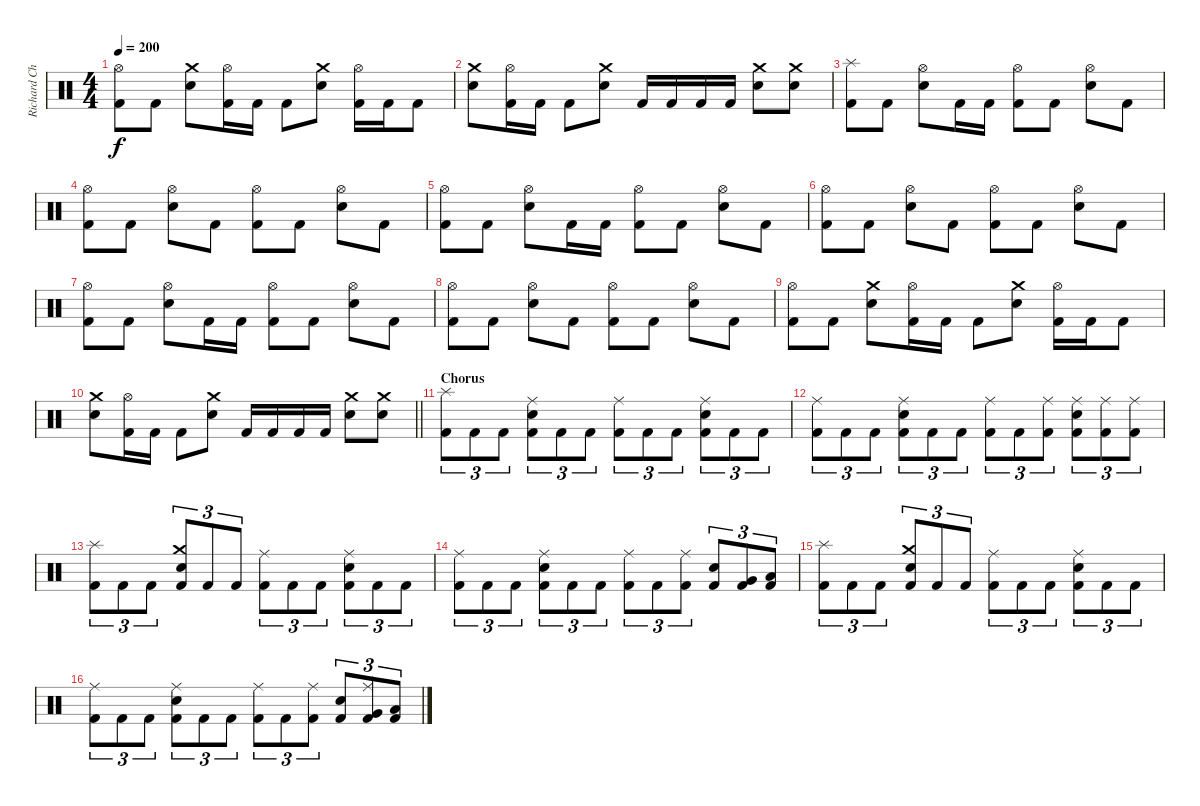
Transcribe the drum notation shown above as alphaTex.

\track ("Richard Christy" "Richard Ch") {instrument percussion}
\staff {score}
\articulation defaults
\ts (4 4)
\tempo 200
\clef neutral
\ks c
("Hi-Hat (open)" "Kick (hit) 2").8{dy f} "Kick (hit) 2".8 ("Crash medium (hit)" "Electric Snare (hit)").8 ("Hi-Hat (open)" "Kick (hit) 2").16 "Kick (hit) 2".16 "Kick (hit) 2".8 ("Crash medium (hit)" "Electric Snare (hit)").8 ("Hi-Hat (open)" "Kick (hit) 2").16 "Kick (hit) 2".16 "Kick (hit) 2".8 |
("Crash medium (hit)" "Electric Snare (hit)").8 ("Hi-Hat (open)" "Kick (hit) 2").16 "Kick (hit) 2".16 "Kick (hit) 2".8 ("Crash medium (hit)" "Electric Snare (hit)").8 "Kick (hit) 2".16 "Kick (hit) 2".16 "Kick (hit) 2".16 "Kick (hit) 2".16 ("Crash medium (hit)" "Electric Snare (hit)").8 ("Crash medium (hit)" "Electric Snare (hit)").8 |
("Splash (hit)" "Kick (hit) 2").8 "Kick (hit) 2".8 ("Hi-Hat (open)" "Electric Snare (hit)").8 "Kick (hit) 2".16 "Kick (hit) 2".16 ("Hi-Hat (open)" "Kick (hit) 2").8 "Kick (hit) 2".8 ("Hi-Hat (open)" "Electric Snare (hit)").8 "Kick (hit) 2".8 |
("Hi-Hat (open)" "Kick (hit) 2").8 "Kick (hit) 2".8 ("Hi-Hat (open)" "Electric Snare (hit)").8 "Kick (hit) 2".8 ("Hi-Hat (open)" "Kick (hit) 2").8 "Kick (hit) 2".8 ("Hi-Hat (open)" "Electric Snare (hit)").8 "Kick (hit) 2".8 |
("Hi-Hat (open)" "Kick (hit) 2").8 "Kick (hit) 2".8 ("Hi-Hat (open)" "Electric Snare (hit)").8 "Kick (hit) 2".16 "Kick (hit) 2".16 ("Hi-Hat (open)" "Kick (hit) 2").8 "Kick (hit) 2".8 ("Hi-Hat (open)" "Electric Snare (hit)").8 "Kick (hit) 2".8 |
("Hi-Hat (open)" "Kick (hit) 2").8 "Kick (hit) 2".8 ("Hi-Hat (open)" "Electric Snare (hit)").8 "Kick (hit) 2".8 ("Hi-Hat (open)" "Kick (hit) 2").8 "Kick (hit) 2".8 ("Hi-Hat (open)" "Electric Snare (hit)").8 "Kick (hit) 2".8 |
("Hi-Hat (open)" "Kick (hit) 2").8 "Kick (hit) 2".8 ("Hi-Hat (open)" "Electric Snare (hit)").8 "Kick (hit) 2".16 "Kick (hit) 2".16 ("Hi-Hat (open)" "Kick (hit) 2").8 "Kick (hit) 2".8 ("Hi-Hat (open)" "Electric Snare (hit)").8 "Kick (hit) 2".8 |
("Hi-Hat (open)" "Kick (hit) 2").8 "Kick (hit) 2".8 ("Hi-Hat (open)" "Electric Snare (hit)").8 "Kick (hit) 2".8 ("Hi-Hat (open)" "Kick (hit) 2").8 "Kick (hit) 2".8 ("Hi-Hat (open)" "Electric Snare (hit)").8 "Kick (hit) 2".8 |
("Hi-Hat (open)" "Kick (hit) 2").8 "Kick (hit) 2".8 ("Crash medium (hit)" "Electric Snare (hit)").8 ("Hi-Hat (open)" "Kick (hit) 2").16 "Kick (hit) 2".16 "Kick (hit) 2".8 ("Crash medium (hit)" "Electric Snare (hit)").8 ("Hi-Hat (open)" "Kick (hit) 2").16 "Kick (hit) 2".16 "Kick (hit) 2".8 |
\barLineRight lightlight
("Crash medium (hit)" "Electric Snare (hit)").8 ("Hi-Hat (open)" "Kick (hit) 2").16 "Kick (hit) 2".16 "Kick (hit) 2".8 ("Crash medium (hit)" "Electric Snare (hit)").8 "Kick (hit) 2".16 "Kick (hit) 2".16 "Kick (hit) 2".16 "Kick (hit) 2".16 ("Crash medium (hit)" "Electric Snare (hit)").8 ("Crash medium (hit)" "Electric Snare (hit)").8 |
\section ("" "Chorus")
("Splash (hit)" "Kick (hit) 2").8{tu (3 2)} "Kick (hit) 2".8{tu (3 2)} "Kick (hit) 2".8{tu (3 2)} ("Ride (middle)" "Electric Snare (hit)" "Kick (hit) 2").8{tu (3 2)} "Kick (hit) 2".8{tu (3 2)} "Kick (hit) 2".8{tu (3 2)} ("Ride (middle)" "Kick (hit) 2").8{tu (3 2)} "Kick (hit) 2".8{tu (3 2)} "Kick (hit) 2".8{tu (3 2)} ("Ride (middle)" "Electric Snare (hit)" "Kick (hit) 2").8{tu (3 2)} "Kick (hit) 2".8{tu (3 2)} "Kick (hit) 2".8{tu (3 2)} |
("Ride (middle)" "Kick (hit) 2").8{tu (3 2)} "Kick (hit) 2".8{tu (3 2)} "Kick (hit) 2".8{tu (3 2)} ("Ride (middle)" "Electric Snare (hit)" "Kick (hit) 2").8{tu (3 2)} "Kick (hit) 2".8{tu (3 2)} "Kick (hit) 2".8{tu (3 2)} ("Ride (middle)" "Kick (hit) 2").8{tu (3 2)} "Kick (hit) 2".8{tu (3 2)} ("Ride (middle)" "Kick (hit) 2").8{tu (3 2)} ("Ride (middle)" "Electric Snare (hit)" "Kick (hit) 2").8{tu (3 2)} ("Ride (middle)" "Kick (hit) 2").8{tu (3 2)} ("Ride (middle)" "Kick (hit) 2").8{tu (3 2)} |
("Splash (hit)" "Kick (hit) 2").8{tu (3 2)} "Kick (hit) 2".8{tu (3 2)} "Kick (hit) 2".8{tu (3 2)} ("Crash medium (hit)" "Electric Snare (hit)" "Kick (hit) 2").8{tu (3 2)} "Kick (hit) 2".8{tu (3 2)} "Kick (hit) 2".8{tu (3 2)} ("Ride (middle)" "Kick (hit) 2").8{tu (3 2)} "Kick (hit) 2".8{tu (3 2)} "Kick (hit) 2".8{tu (3 2)} ("Ride (middle)" "Electric Snare (hit)" "Kick (hit) 2").8{tu (3 2)} "Kick (hit) 2".8{tu (3 2)} "Kick (hit) 2".8{tu (3 2)} |
("Ride (middle)" "Kick (hit) 2").8{tu (3 2)} "Kick (hit) 2".8{tu (3 2)} "Kick (hit) 2".8{tu (3 2)} ("Ride (middle)" "Electric Snare (hit)" "Kick (hit) 2").8{tu (3 2)} "Kick (hit) 2".8{tu (3 2)} "Kick (hit) 2".8{tu (3 2)} ("Ride (middle)" "Kick (hit) 2").8{tu (3 2)} "Kick (hit) 2".8{tu (3 2)} ("Ride (middle)" "Kick (hit) 2").8{tu (3 2)} ("Electric Snare (hit)" "Kick (hit) 2").8{tu (3 2)} ("Very Low Tom (hit)" "Kick (hit) 2").8{tu (3 2)} ("Low Floor Tom (hit)" "Kick (hit) 2").8{tu (3 2)} |
("Splash (hit)" "Kick (hit) 2").8{tu (3 2)} "Kick (hit) 2".8{tu (3 2)} "Kick (hit) 2".8{tu (3 2)} ("Crash medium (hit)" "Electric Snare (hit)" "Kick (hit) 2").8{tu (3 2)} "Kick (hit) 2".8{tu (3 2)} "Kick (hit) 2".8{tu (3 2)} ("Ride (middle)" "Kick (hit) 2").8{tu (3 2)} "Kick (hit) 2".8{tu (3 2)} "Kick (hit) 2".8{tu (3 2)} ("Ride (middle)" "Electric Snare (hit)" "Kick (hit) 2").8{tu (3 2)} "Kick (hit) 2".8{tu (3 2)} "Kick (hit) 2".8{tu (3 2)} |
("Ride (middle)" "Kick (hit) 2").8{tu (3 2)} "Kick (hit) 2".8{tu (3 2)} "Kick (hit) 2".8{tu (3 2)} ("Ride (middle)" "Electric Snare (hit)" "Kick (hit) 2").8{tu (3 2)} "Kick (hit) 2".8{tu (3 2)} "Kick (hit) 2".8{tu (3 2)} ("Ride (middle)" "Kick (hit) 2").8{tu (3 2)} "Kick (hit) 2".8{tu (3 2)} ("Ride (middle)" "Kick (hit) 2").8{tu (3 2)} ("Electric Snare (hit)" "Kick (hit) 2").8{tu (3 2)} ("Ride (middle)" "Very Low Tom (hit)" "Kick (hit) 2").8{tu (3 2)} ("Low Floor Tom (hit)" "Kick (hit) 2").8{tu (3 2)}
